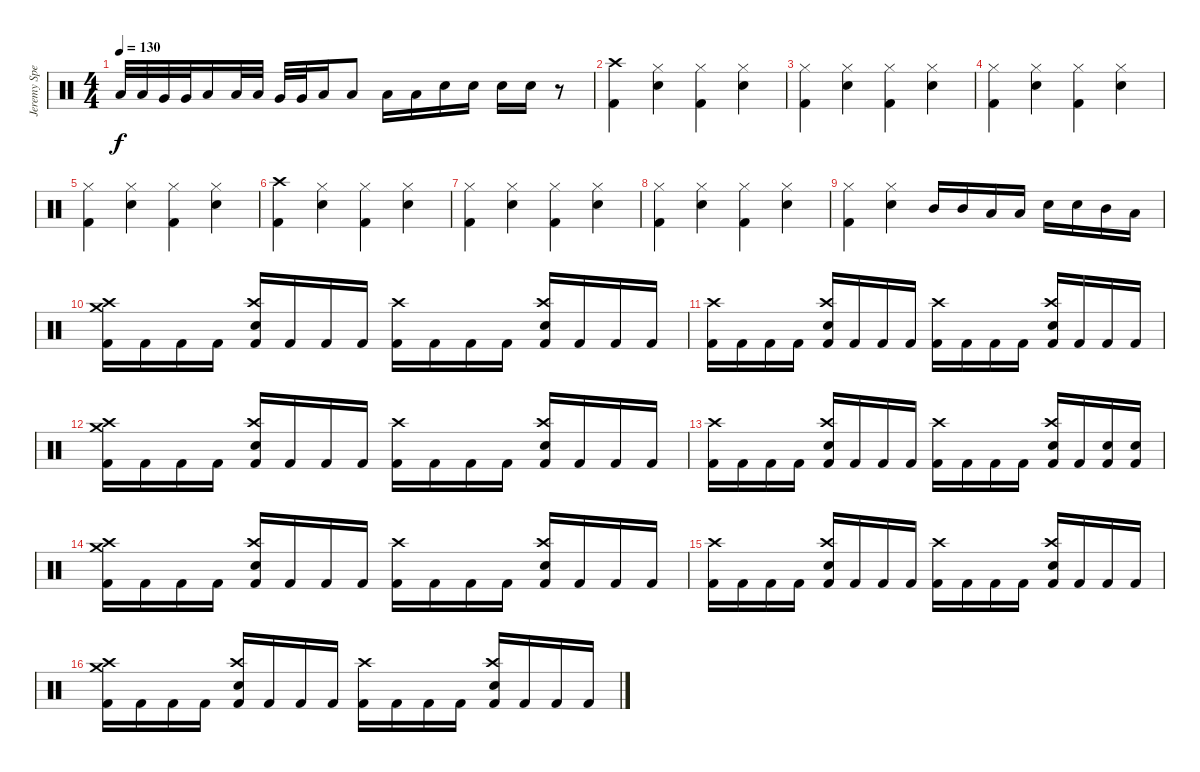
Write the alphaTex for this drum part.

\track ("Jeremy Spencer" "Jeremy Spe") {instrument percussion}
\staff {score}
\articulation defaults
\ts (4 4)
\tempo 130
\clef neutral
\ks c "Low Tom (hit)".32{dy f} "Low Tom (hit)".32 "Very Low Tom (hit)".32 "Very Low Tom (hit)".32 "Low Floor Tom (hit)".16 "Low Tom (hit)".32 "Low Tom (hit)".32 "Very Low Tom (hit)".32 "Very Low Tom (hit)".32 "Low Floor Tom (hit)".16 "Low Tom (hit)".8 "Low Tom (hit)".16 "Low Tom (hit)".16 "Snare (hit) 2".16 "Snare (hit) 2".16 "Snare (hit) 2".16 "Snare (hit) 2".16
r.8 |
("Crash high (hit)" "Kick (hit) 2").4 ("Hi-Hat (closed)" "Snare (hit) 2").4 ("Hi-Hat (closed)" "Kick (hit) 2").4 ("Hi-Hat (closed)" "Snare (hit) 2").4 |
("Hi-Hat (closed)" "Kick (hit) 2").4 ("Hi-Hat (closed)" "Snare (hit) 2").4 ("Hi-Hat (closed)" "Kick (hit) 2").4 ("Hi-Hat (closed)" "Snare (hit) 2").4 |
("Hi-Hat (closed)" "Kick (hit) 2").4 ("Hi-Hat (closed)" "Snare (hit) 2").4 ("Hi-Hat (closed)" "Kick (hit) 2").4 ("Hi-Hat (closed)" "Snare (hit) 2").4 |
("Hi-Hat (closed)" "Kick (hit) 2").4 ("Hi-Hat (closed)" "Snare (hit) 2").4 ("Hi-Hat (closed)" "Kick (hit) 2").4 ("Hi-Hat (closed)" "Snare (hit) 2").4 |
("Crash high (hit)" "Kick (hit) 2").4 ("Hi-Hat (closed)" "Snare (hit) 2").4 ("Hi-Hat (closed)" "Kick (hit) 2").4 ("Hi-Hat (closed)" "Snare (hit) 2").4 |
("Hi-Hat (closed)" "Kick (hit) 2").4 ("Hi-Hat (closed)" "Snare (hit) 2").4 ("Hi-Hat (closed)" "Kick (hit) 2").4 ("Hi-Hat (closed)" "Snare (hit) 2").4 |
("Hi-Hat (closed)" "Kick (hit) 2").4 ("Hi-Hat (closed)" "Snare (hit) 2").4 ("Hi-Hat (closed)" "Kick (hit) 2").4 ("Hi-Hat (closed)" "Snare (hit) 2").4 |
("Hi-Hat (closed)" "Kick (hit) 2").4 ("Hi-Hat (closed)" "Snare (hit) 2").4 "Mid Tom (hit)".16 "Mid Tom (hit)".16 "Low Tom (hit)".16 "Low Tom (hit)".16 "Snare (hit) 2".16 "Snare (hit) 2".16 "Mid Tom (hit)".16 "Low Tom (hit)".16 |
("Crash high (hit)" "Crash medium (hit)" "Kick (hit) 2").16 "Kick (hit) 2".16 "Kick (hit) 2".16 "Kick (hit) 2".16 ("Crash high (hit)" "Snare (hit) 2" "Kick (hit) 2").16 "Kick (hit) 2".16 "Kick (hit) 2".16 "Kick (hit) 2".16 ("Crash high (hit)" "Kick (hit) 2").16 "Kick (hit) 2".16 "Kick (hit) 2".16 "Kick (hit) 2".16 ("Crash high (hit)" "Snare (hit) 2" "Kick (hit) 2").16 "Kick (hit) 2".16 "Kick (hit) 2".16 "Kick (hit) 2".16 |
("Crash high (hit)" "Kick (hit) 2").16 "Kick (hit) 2".16 "Kick (hit) 2".16 "Kick (hit) 2".16 ("Crash high (hit)" "Snare (hit) 2" "Kick (hit) 2").16 "Kick (hit) 2".16 "Kick (hit) 2".16 "Kick (hit) 2".16 ("Crash high (hit)" "Kick (hit) 2").16 "Kick (hit) 2".16 "Kick (hit) 2".16 "Kick (hit) 2".16 ("Crash high (hit)" "Snare (hit) 2" "Kick (hit) 2").16 "Kick (hit) 2".16 "Kick (hit) 2".16 "Kick (hit) 2".16 |
("Crash high (hit)" "Crash medium (hit)" "Kick (hit) 2").16 "Kick (hit) 2".16 "Kick (hit) 2".16 "Kick (hit) 2".16 ("Crash high (hit)" "Snare (hit) 2" "Kick (hit) 2").16 "Kick (hit) 2".16 "Kick (hit) 2".16 "Kick (hit) 2".16 ("Crash high (hit)" "Kick (hit) 2").16 "Kick (hit) 2".16 "Kick (hit) 2".16 "Kick (hit) 2".16 ("Crash high (hit)" "Snare (hit) 2" "Kick (hit) 2").16 "Kick (hit) 2".16 "Kick (hit) 2".16 "Kick (hit) 2".16 |
("Crash high (hit)" "Kick (hit) 2").16 "Kick (hit) 2".16 "Kick (hit) 2".16 "Kick (hit) 2".16 ("Crash high (hit)" "Snare (hit) 2" "Kick (hit) 2").16 "Kick (hit) 2".16 "Kick (hit) 2".16 "Kick (hit) 2".16 ("Crash high (hit)" "Kick (hit) 2").16 "Kick (hit) 2".16 "Kick (hit) 2".16 "Kick (hit) 2".16 ("Crash high (hit)" "Snare (hit) 2" "Kick (hit) 2").16 "Kick (hit) 2".16 ("Snare (hit) 2" "Kick (hit) 2").16 ("Snare (hit) 2" "Kick (hit) 2").16 |
("Crash high (hit)" "Crash medium (hit)" "Kick (hit) 2").16 "Kick (hit) 2".16 "Kick (hit) 2".16 "Kick (hit) 2".16 ("Crash high (hit)" "Snare (hit) 2" "Kick (hit) 2").16 "Kick (hit) 2".16 "Kick (hit) 2".16 "Kick (hit) 2".16 ("Crash high (hit)" "Kick (hit) 2").16 "Kick (hit) 2".16 "Kick (hit) 2".16 "Kick (hit) 2".16 ("Crash high (hit)" "Snare (hit) 2" "Kick (hit) 2").16 "Kick (hit) 2".16 "Kick (hit) 2".16 "Kick (hit) 2".16 |
("Crash high (hit)" "Kick (hit) 2").16 "Kick (hit) 2".16 "Kick (hit) 2".16 "Kick (hit) 2".16 ("Crash high (hit)" "Snare (hit) 2" "Kick (hit) 2").16 "Kick (hit) 2".16 "Kick (hit) 2".16 "Kick (hit) 2".16 ("Crash high (hit)" "Kick (hit) 2").16 "Kick (hit) 2".16 "Kick (hit) 2".16 "Kick (hit) 2".16 ("Crash high (hit)" "Snare (hit) 2" "Kick (hit) 2").16 "Kick (hit) 2".16 "Kick (hit) 2".16 "Kick (hit) 2".16 |
("Crash high (hit)" "Crash medium (hit)" "Kick (hit) 2").16 "Kick (hit) 2".16 "Kick (hit) 2".16 "Kick (hit) 2".16 ("Crash high (hit)" "Snare (hit) 2" "Kick (hit) 2").16 "Kick (hit) 2".16 "Kick (hit) 2".16 "Kick (hit) 2".16 ("Crash high (hit)" "Kick (hit) 2").16 "Kick (hit) 2".16 "Kick (hit) 2".16 "Kick (hit) 2".16 ("Crash high (hit)" "Snare (hit) 2" "Kick (hit) 2").16 "Kick (hit) 2".16 "Kick (hit) 2".16 "Kick (hit) 2".16
